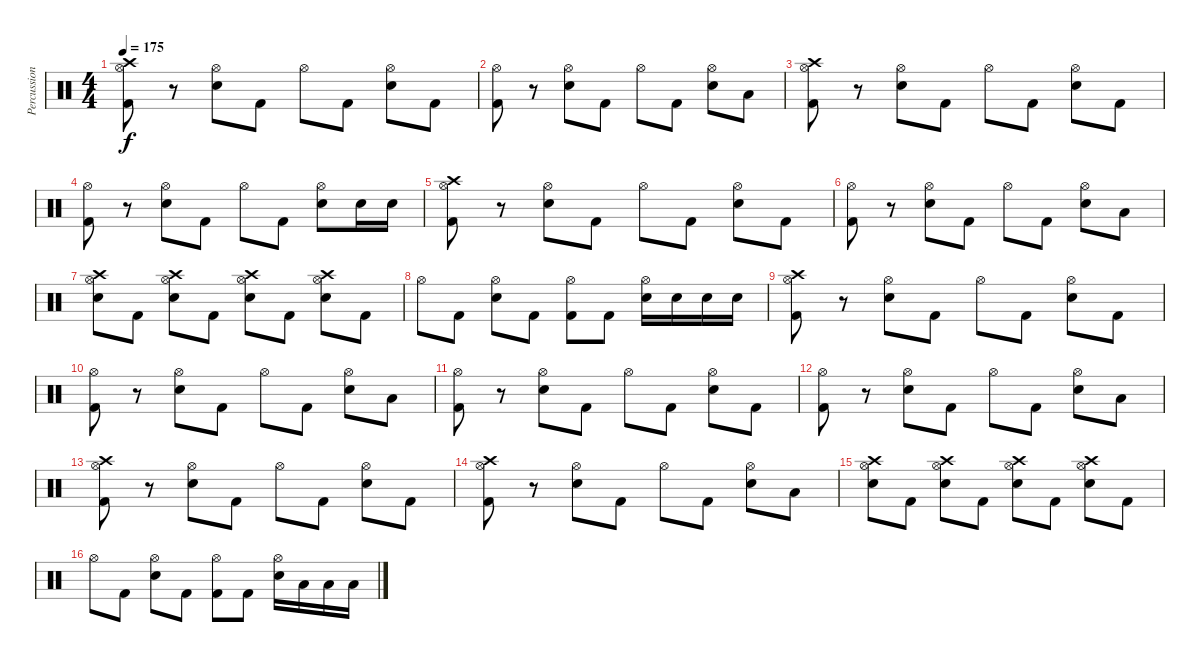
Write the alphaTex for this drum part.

\track ("Percussion" "Percussion") {instrument percussion}
\staff {score}
\articulation defaults
\ts (4 4)
\tempo 175
\clef neutral
\ks c
("Crash high (hit)" "Hi-Hat (open)" "Kick (hit) 2").8{dy f} r.8 ("Hi-Hat (open)" "Electric Snare (hit)").8 "Kick (hit) 2".8 "Hi-Hat (open)".8 "Kick (hit) 2".8 ("Hi-Hat (open)" "Electric Snare (hit)").8 "Kick (hit) 2".8 |
("Hi-Hat (open)" "Kick (hit) 2").8 r.8 ("Hi-Hat (open)" "Electric Snare (hit)").8 "Kick (hit) 2".8 "Hi-Hat (open)".8 "Kick (hit) 2".8 ("Hi-Hat (open)" "Electric Snare (hit)").8 "Low Tom (hit)".8 |
("Crash high (hit)" "Hi-Hat (open)" "Kick (hit) 2").8 r.8 ("Hi-Hat (open)" "Electric Snare (hit)").8 "Kick (hit) 2".8 "Hi-Hat (open)".8 "Kick (hit) 2".8 ("Hi-Hat (open)" "Electric Snare (hit)").8 "Kick (hit) 2".8 |
("Hi-Hat (open)" "Kick (hit) 2").8 r.8 ("Hi-Hat (open)" "Electric Snare (hit)").8 "Kick (hit) 2".8 "Hi-Hat (open)".8 "Kick (hit) 2".8 ("Hi-Hat (open)" "Electric Snare (hit)").8 "Electric Snare (hit)".16 "Electric Snare (hit)".16 |
("Crash high (hit)" "Hi-Hat (open)" "Kick (hit) 2").8 r.8 ("Hi-Hat (open)" "Electric Snare (hit)").8 "Kick (hit) 2".8 "Hi-Hat (open)".8 "Kick (hit) 2".8 ("Hi-Hat (open)" "Electric Snare (hit)").8 "Kick (hit) 2".8 |
("Hi-Hat (open)" "Kick (hit) 2").8 r.8 ("Hi-Hat (open)" "Electric Snare (hit)").8 "Kick (hit) 2".8 "Hi-Hat (open)".8 "Kick (hit) 2".8 ("Hi-Hat (open)" "Electric Snare (hit)").8 "Low Tom (hit)".8 |
("Crash high (hit)" "Hi-Hat (open)" "Electric Snare (hit)").8 "Kick (hit) 2".8 ("Crash high (hit)" "Hi-Hat (open)" "Electric Snare (hit)").8 "Kick (hit) 2".8 ("Crash high (hit)" "Hi-Hat (open)" "Electric Snare (hit)").8 "Kick (hit) 2".8 ("Crash high (hit)" "Hi-Hat (open)" "Electric Snare (hit)").8 "Kick (hit) 2".8 |
"Hi-Hat (open)".8 "Kick (hit) 2".8 ("Hi-Hat (open)" "Electric Snare (hit)").8 "Kick (hit) 2".8 ("Hi-Hat (open)" "Kick (hit) 2").8 "Kick (hit) 2".8 ("Hi-Hat (open)" "Electric Snare (hit)").16 "Electric Snare (hit)".16 "Electric Snare (hit)".16 "Electric Snare (hit)".16 |
("Crash high (hit)" "Hi-Hat (open)" "Kick (hit) 2").8 r.8 ("Hi-Hat (open)" "Electric Snare (hit)").8 "Kick (hit) 2".8 "Hi-Hat (open)".8 "Kick (hit) 2".8 ("Hi-Hat (open)" "Electric Snare (hit)").8 "Kick (hit) 2".8 |
("Hi-Hat (open)" "Kick (hit) 2").8 r.8 ("Hi-Hat (open)" "Electric Snare (hit)").8 "Kick (hit) 2".8 "Hi-Hat (open)".8 "Kick (hit) 2".8 ("Hi-Hat (open)" "Electric Snare (hit)").8 "Low Tom (hit)".8 |
("Hi-Hat (open)" "Kick (hit) 2").8 r.8 ("Hi-Hat (open)" "Electric Snare (hit)").8 "Kick (hit) 2".8 "Hi-Hat (open)".8 "Kick (hit) 2".8 ("Hi-Hat (open)" "Electric Snare (hit)").8 "Kick (hit) 2".8 |
("Hi-Hat (open)" "Kick (hit) 2").8 r.8 ("Hi-Hat (open)" "Electric Snare (hit)").8 "Kick (hit) 2".8 "Hi-Hat (open)".8 "Kick (hit) 2".8 ("Hi-Hat (open)" "Electric Snare (hit)").8 "Low Tom (hit)".8 |
("Crash high (hit)" "Hi-Hat (open)" "Kick (hit) 2").8 r.8 ("Hi-Hat (open)" "Electric Snare (hit)").8 "Kick (hit) 2".8 "Hi-Hat (open)".8 "Kick (hit) 2".8 ("Hi-Hat (open)" "Electric Snare (hit)").8 "Kick (hit) 2".8 |
("Crash high (hit)" "Hi-Hat (open)" "Kick (hit) 2").8 r.8 ("Hi-Hat (open)" "Electric Snare (hit)").8 "Kick (hit) 2".8 "Hi-Hat (open)".8 "Kick (hit) 2".8 ("Hi-Hat (open)" "Electric Snare (hit)").8 "Low Tom (hit)".8 |
("Crash high (hit)" "Hi-Hat (open)" "Electric Snare (hit)").8 "Kick (hit) 2".8 ("Crash high (hit)" "Hi-Hat (open)" "Electric Snare (hit)").8 "Kick (hit) 2".8 ("Crash high (hit)" "Hi-Hat (open)" "Electric Snare (hit)").8 "Kick (hit) 2".8 ("Crash high (hit)" "Hi-Hat (open)" "Electric Snare (hit)").8 "Kick (hit) 2".8 |
"Hi-Hat (open)".8 "Kick (hit) 2".8 ("Hi-Hat (open)" "Electric Snare (hit)").8 "Kick (hit) 2".8 ("Hi-Hat (open)" "Kick (hit) 2").8 "Kick (hit) 2".8 ("Hi-Hat (open)" "Electric Snare (hit)").16 "Low Tom (hit)".16 "Low Tom (hit)".16 "Low Tom (hit)".16
